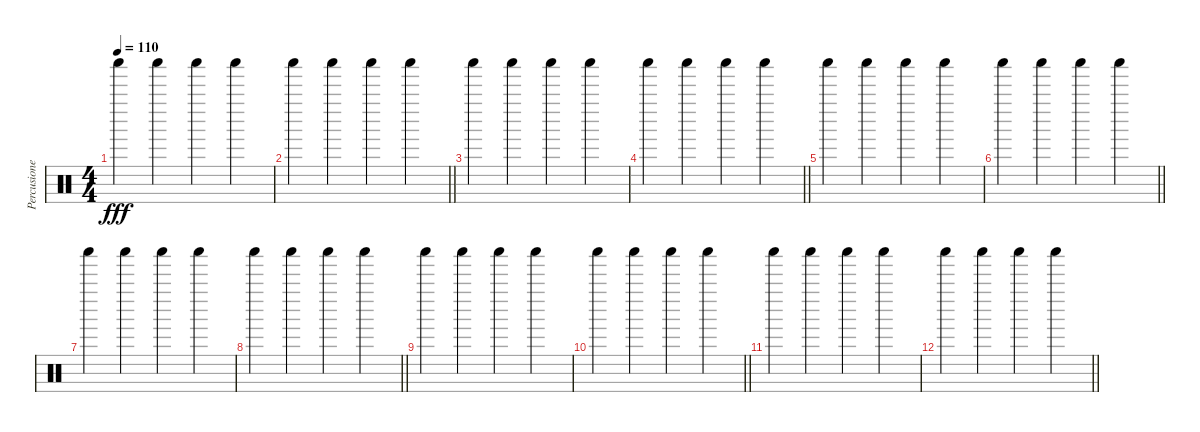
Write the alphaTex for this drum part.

\track ("Percusiones" "Percusione") {instrument percussion}
\staff {score}
\articulation defaults
\ts (4 4)
\tempo 110
\clef neutral
\ks c "Shaker (hit)".4{dy fff} "Shaker (hit)".4 "Shaker (hit)".4 "Shaker (hit)".4
|
\barLineRight lightlight "Shaker (hit)".4 "Shaker (hit)".4 "Shaker (hit)".4 "Shaker (hit)".4
|
"Shaker (hit)".4 "Shaker (hit)".4 "Shaker (hit)".4 "Shaker (hit)".4 |
\barLineRight lightlight "Shaker (hit)".4 "Shaker (hit)".4 "Shaker (hit)".4 "Shaker (hit)".4
|
"Shaker (hit)".4 "Shaker (hit)".4 "Shaker (hit)".4 "Shaker (hit)".4 |
\barLineRight lightlight "Shaker (hit)".4 "Shaker (hit)".4 "Shaker (hit)".4 "Shaker (hit)".4
|
"Shaker (hit)".4 "Shaker (hit)".4 "Shaker (hit)".4 "Shaker (hit)".4 |
\barLineRight lightlight "Shaker (hit)".4 "Shaker (hit)".4 "Shaker (hit)".4 "Shaker (hit)".4
|
"Shaker (hit)".4 "Shaker (hit)".4 "Shaker (hit)".4 "Shaker (hit)".4 |
\barLineRight lightlight "Shaker (hit)".4 "Shaker (hit)".4 "Shaker (hit)".4 "Shaker (hit)".4
|
"Shaker (hit)".4 "Shaker (hit)".4 "Shaker (hit)".4 "Shaker (hit)".4 |
\barLineRight lightlight "Shaker (hit)".4 "Shaker (hit)".4 "Shaker (hit)".4 "Shaker (hit)".4
